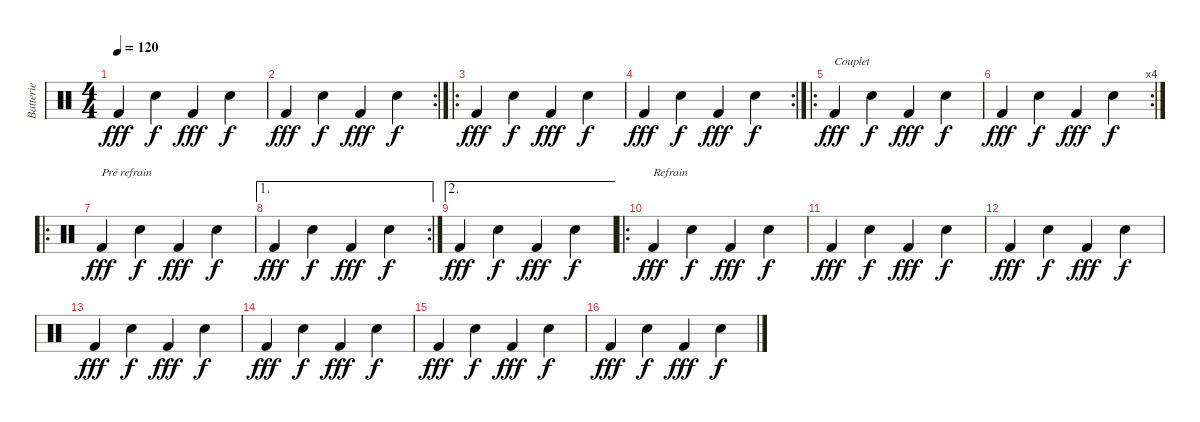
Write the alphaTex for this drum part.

\track ("Batterie" "Batterie") {instrument percussion}
\staff {score}
\articulation defaults
\ts (4 4)
\tempo 120
\clef neutral
\ks c "Kick (hit) 2".4{dy fff} "Electric Snare (hit)".4{dy f} "Kick (hit) 2".4{dy fff} "Electric Snare (hit)".4{dy f}
|
\rc 2 "Kick (hit) 2".4{dy fff} "Electric Snare (hit)".4{dy f} "Kick (hit) 2".4{dy fff} "Electric Snare (hit)".4{dy f}
|
\ro "Kick (hit) 2".4{dy fff} "Electric Snare (hit)".4{dy f} "Kick (hit) 2".4{dy fff} "Electric Snare (hit)".4{dy f}
|
\rc 2 "Kick (hit) 2".4{dy fff} "Electric Snare (hit)".4{dy f} "Kick (hit) 2".4{dy fff} "Electric Snare (hit)".4{dy f}
|
\ro "Kick (hit) 2".4{txt "Couplet" dy fff} "Electric Snare (hit)".4{dy f} "Kick (hit) 2".4{dy fff} "Electric Snare (hit)".4{dy f}
|
\rc 4 "Kick (hit) 2".4{dy fff} "Electric Snare (hit)".4{dy f} "Kick (hit) 2".4{dy fff} "Electric Snare (hit)".4{dy f}
|
\ro "Kick (hit) 2".4{txt "Pré refrain" dy fff} "Electric Snare (hit)".4{dy f} "Kick (hit) 2".4{dy fff} "Electric Snare (hit)".4{dy f}
|
\ae 1
\rc 2 "Kick (hit) 2".4{dy fff} "Electric Snare (hit)".4{dy f} "Kick (hit) 2".4{dy fff} "Electric Snare (hit)".4{dy f}
|
\ae 2 "Kick (hit) 2".4{dy fff} "Electric Snare (hit)".4{dy f} "Kick (hit) 2".4{dy fff} "Electric Snare (hit)".4{dy f}
|
\ro "Kick (hit) 2".4{txt "Refrain" dy fff} "Electric Snare (hit)".4{dy f} "Kick (hit) 2".4{dy fff} "Electric Snare (hit)".4{dy f}
|
"Kick (hit) 2".4{dy fff} "Electric Snare (hit)".4{dy f} "Kick (hit) 2".4{dy fff} "Electric Snare (hit)".4{dy f} |
"Kick (hit) 2".4{dy fff} "Electric Snare (hit)".4{dy f} "Kick (hit) 2".4{dy fff} "Electric Snare (hit)".4{dy f} |
"Kick (hit) 2".4{dy fff} "Electric Snare (hit)".4{dy f} "Kick (hit) 2".4{dy fff} "Electric Snare (hit)".4{dy f} |
"Kick (hit) 2".4{dy fff} "Electric Snare (hit)".4{dy f} "Kick (hit) 2".4{dy fff} "Electric Snare (hit)".4{dy f} |
"Kick (hit) 2".4{dy fff} "Electric Snare (hit)".4{dy f} "Kick (hit) 2".4{dy fff} "Electric Snare (hit)".4{dy f} |
"Kick (hit) 2".4{dy fff} "Electric Snare (hit)".4{dy f} "Kick (hit) 2".4{dy fff} "Electric Snare (hit)".4{dy f}
